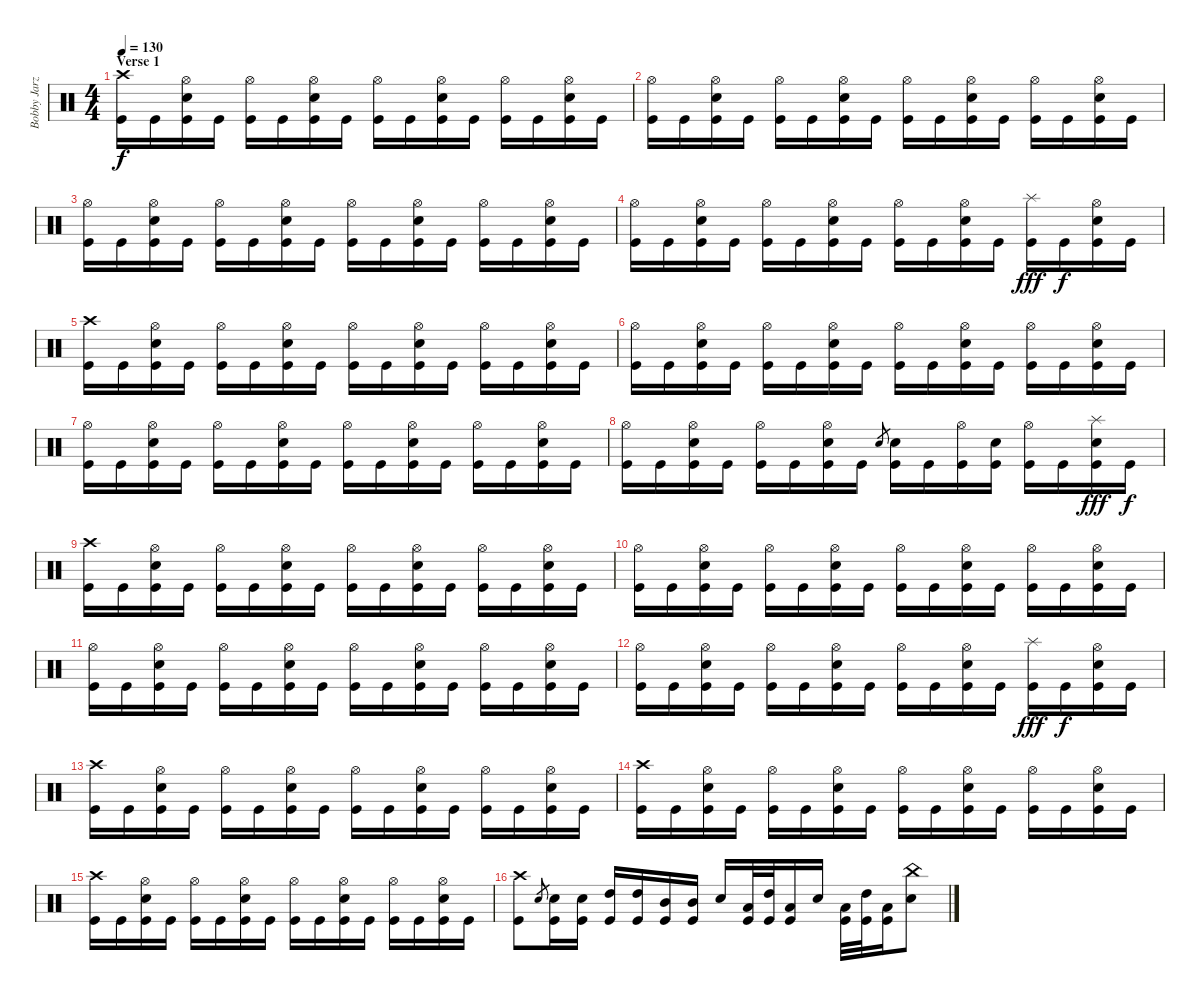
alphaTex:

\track ("Bobby Jarzombek" "Bobby Jarz") {instrument percussion}
\staff {score}
\articulation defaults
\ts (4 4)
\section ("" "Verse 1")
\tempo 130
\clef neutral
\ks c
("Crash high (hit)" "Kick (hit)").16{dy f} "Kick (hit)".16 ("Hi-Hat (open)" "Electric Snare (hit)" "Kick (hit)").16 "Kick (hit)".16 ("Hi-Hat (open)" "Kick (hit)").16 "Kick (hit)".16 ("Hi-Hat (open)" "Electric Snare (hit)" "Kick (hit)").16 "Kick (hit)".16 ("Hi-Hat (open)" "Kick (hit)").16 "Kick (hit)".16 ("Hi-Hat (open)" "Electric Snare (hit)" "Kick (hit)").16 "Kick (hit)".16 ("Hi-Hat (open)" "Kick (hit)").16 "Kick (hit)".16 ("Hi-Hat (open)" "Electric Snare (hit)" "Kick (hit)").16 "Kick (hit)".16 |
("Hi-Hat (open)" "Kick (hit)").16 "Kick (hit)".16 ("Hi-Hat (open)" "Electric Snare (hit)" "Kick (hit)").16 "Kick (hit)".16 ("Hi-Hat (open)" "Kick (hit)").16 "Kick (hit)".16 ("Hi-Hat (open)" "Electric Snare (hit)" "Kick (hit)").16 "Kick (hit)".16 ("Hi-Hat (open)" "Kick (hit)").16 "Kick (hit)".16 ("Hi-Hat (open)" "Electric Snare (hit)" "Kick (hit)").16 "Kick (hit)".16 ("Hi-Hat (open)" "Kick (hit)").16 "Kick (hit)".16 ("Hi-Hat (open)" "Electric Snare (hit)" "Kick (hit)").16 "Kick (hit)".16 |
("Hi-Hat (open)" "Kick (hit)").16 "Kick (hit)".16 ("Hi-Hat (open)" "Electric Snare (hit)" "Kick (hit)").16 "Kick (hit)".16 ("Hi-Hat (open)" "Kick (hit)").16 "Kick (hit)".16 ("Hi-Hat (open)" "Electric Snare (hit)" "Kick (hit)").16 "Kick (hit)".16 ("Hi-Hat (open)" "Kick (hit)").16 "Kick (hit)".16 ("Hi-Hat (open)" "Electric Snare (hit)" "Kick (hit)").16 "Kick (hit)".16 ("Hi-Hat (open)" "Kick (hit)").16 "Kick (hit)".16 ("Hi-Hat (open)" "Electric Snare (hit)" "Kick (hit)").16 "Kick (hit)".16 |
("Hi-Hat (open)" "Kick (hit)").16 "Kick (hit)".16 ("Hi-Hat (open)" "Electric Snare (hit)" "Kick (hit)").16 "Kick (hit)".16 ("Hi-Hat (open)" "Kick (hit)").16 "Kick (hit)".16 ("Hi-Hat (open)" "Electric Snare (hit)" "Kick (hit)").16 "Kick (hit)".16 ("Hi-Hat (open)" "Kick (hit)").16 "Kick (hit)".16 ("Hi-Hat (open)" "Electric Snare (hit)" "Kick (hit)").16 "Kick (hit)".16 ("Splash (hit)" "Kick (hit)").16{dy fff} "Kick (hit)".16{dy f} ("Hi-Hat (open)" "Electric Snare (hit)" "Kick (hit)").16 "Kick (hit)".16 |
("Crash high (hit)" "Kick (hit)").16 "Kick (hit)".16 ("Hi-Hat (open)" "Electric Snare (hit)" "Kick (hit)").16 "Kick (hit)".16 ("Hi-Hat (open)" "Kick (hit)").16 "Kick (hit)".16 ("Hi-Hat (open)" "Electric Snare (hit)" "Kick (hit)").16 "Kick (hit)".16 ("Hi-Hat (open)" "Kick (hit)").16 "Kick (hit)".16 ("Hi-Hat (open)" "Electric Snare (hit)" "Kick (hit)").16 "Kick (hit)".16 ("Hi-Hat (open)" "Kick (hit)").16 "Kick (hit)".16 ("Hi-Hat (open)" "Electric Snare (hit)" "Kick (hit)").16 "Kick (hit)".16 |
("Hi-Hat (open)" "Kick (hit)").16 "Kick (hit)".16 ("Hi-Hat (open)" "Electric Snare (hit)" "Kick (hit)").16 "Kick (hit)".16 ("Hi-Hat (open)" "Kick (hit)").16 "Kick (hit)".16 ("Hi-Hat (open)" "Electric Snare (hit)" "Kick (hit)").16 "Kick (hit)".16 ("Hi-Hat (open)" "Kick (hit)").16 "Kick (hit)".16 ("Hi-Hat (open)" "Electric Snare (hit)" "Kick (hit)").16 "Kick (hit)".16 ("Hi-Hat (open)" "Kick (hit)").16 "Kick (hit)".16 ("Hi-Hat (open)" "Electric Snare (hit)" "Kick (hit)").16 "Kick (hit)".16 |
("Hi-Hat (open)" "Kick (hit)").16 "Kick (hit)".16 ("Hi-Hat (open)" "Electric Snare (hit)" "Kick (hit)").16 "Kick (hit)".16 ("Hi-Hat (open)" "Kick (hit)").16 "Kick (hit)".16 ("Hi-Hat (open)" "Electric Snare (hit)" "Kick (hit)").16 "Kick (hit)".16 ("Hi-Hat (open)" "Kick (hit)").16 "Kick (hit)".16 ("Hi-Hat (open)" "Electric Snare (hit)" "Kick (hit)").16 "Kick (hit)".16 ("Hi-Hat (open)" "Kick (hit)").16 "Kick (hit)".16 ("Hi-Hat (open)" "Electric Snare (hit)" "Kick (hit)").16 "Kick (hit)".16 |
("Hi-Hat (open)" "Kick (hit)").16 "Kick (hit)".16 ("Hi-Hat (open)" "Electric Snare (hit)" "Kick (hit)").16 "Kick (hit)".16 ("Hi-Hat (open)" "Kick (hit)").16 "Kick (hit)".16 ("Hi-Hat (open)" "Electric Snare (hit)" "Kick (hit)").16 "Kick (hit)".16 "Electric Snare (hit)".8{gr} ("Electric Snare (hit)" "Kick (hit)").16 "Kick (hit)".16 ("Hi-Hat (open)" "Kick (hit)").16 ("Electric Snare (hit)" "Kick (hit)").16 ("Hi-Hat (open)" "Kick (hit)").16 "Kick (hit)".16 ("Splash (hit)" "Electric Snare (hit)" "Kick (hit)").16{dy fff} "Kick (hit)".16{dy f} |
("Crash high (hit)" "Kick (hit)").16 "Kick (hit)".16 ("Hi-Hat (open)" "Electric Snare (hit)" "Kick (hit)").16 "Kick (hit)".16 ("Hi-Hat (open)" "Kick (hit)").16 "Kick (hit)".16 ("Hi-Hat (open)" "Electric Snare (hit)" "Kick (hit)").16 "Kick (hit)".16 ("Hi-Hat (open)" "Kick (hit)").16 "Kick (hit)".16 ("Hi-Hat (open)" "Electric Snare (hit)" "Kick (hit)").16 "Kick (hit)".16 ("Hi-Hat (open)" "Kick (hit)").16 "Kick (hit)".16 ("Hi-Hat (open)" "Electric Snare (hit)" "Kick (hit)").16 "Kick (hit)".16 |
("Hi-Hat (open)" "Kick (hit)").16 "Kick (hit)".16 ("Hi-Hat (open)" "Electric Snare (hit)" "Kick (hit)").16 "Kick (hit)".16 ("Hi-Hat (open)" "Kick (hit)").16 "Kick (hit)".16 ("Hi-Hat (open)" "Electric Snare (hit)" "Kick (hit)").16 "Kick (hit)".16 ("Hi-Hat (open)" "Kick (hit)").16 "Kick (hit)".16 ("Hi-Hat (open)" "Electric Snare (hit)" "Kick (hit)").16 "Kick (hit)".16 ("Hi-Hat (open)" "Kick (hit)").16 "Kick (hit)".16 ("Hi-Hat (open)" "Electric Snare (hit)" "Kick (hit)").16 "Kick (hit)".16 |
("Hi-Hat (open)" "Kick (hit)").16 "Kick (hit)".16 ("Hi-Hat (open)" "Electric Snare (hit)" "Kick (hit)").16 "Kick (hit)".16 ("Hi-Hat (open)" "Kick (hit)").16 "Kick (hit)".16 ("Hi-Hat (open)" "Electric Snare (hit)" "Kick (hit)").16 "Kick (hit)".16 ("Hi-Hat (open)" "Kick (hit)").16 "Kick (hit)".16 ("Hi-Hat (open)" "Electric Snare (hit)" "Kick (hit)").16 "Kick (hit)".16 ("Hi-Hat (open)" "Kick (hit)").16 "Kick (hit)".16 ("Hi-Hat (open)" "Electric Snare (hit)" "Kick (hit)").16 "Kick (hit)".16 |
("Hi-Hat (open)" "Kick (hit)").16 "Kick (hit)".16 ("Hi-Hat (open)" "Electric Snare (hit)" "Kick (hit)").16 "Kick (hit)".16 ("Hi-Hat (open)" "Kick (hit)").16 "Kick (hit)".16 ("Hi-Hat (open)" "Electric Snare (hit)" "Kick (hit)").16 "Kick (hit)".16 ("Hi-Hat (open)" "Kick (hit)").16 "Kick (hit)".16 ("Hi-Hat (open)" "Electric Snare (hit)" "Kick (hit)").16 "Kick (hit)".16 ("Splash (hit)" "Kick (hit)").16{dy fff} "Kick (hit)".16{dy f} ("Hi-Hat (open)" "Electric Snare (hit)" "Kick (hit)").16 "Kick (hit)".16 |
("Crash high (hit)" "Kick (hit)").16 "Kick (hit)".16 ("Hi-Hat (open)" "Electric Snare (hit)" "Kick (hit)").16 "Kick (hit)".16 ("Hi-Hat (open)" "Kick (hit)").16 "Kick (hit)".16 ("Hi-Hat (open)" "Electric Snare (hit)" "Kick (hit)").16 "Kick (hit)".16 ("Hi-Hat (open)" "Kick (hit)").16 "Kick (hit)".16 ("Hi-Hat (open)" "Electric Snare (hit)" "Kick (hit)").16 "Kick (hit)".16 ("Hi-Hat (open)" "Kick (hit)").16 "Kick (hit)".16 ("Hi-Hat (open)" "Electric Snare (hit)" "Kick (hit)").16 "Kick (hit)".16 |
("Crash high (hit)" "Kick (hit)").16 "Kick (hit)".16 ("Hi-Hat (open)" "Electric Snare (hit)" "Kick (hit)").16 "Kick (hit)".16 ("Hi-Hat (open)" "Kick (hit)").16 "Kick (hit)".16 ("Hi-Hat (open)" "Electric Snare (hit)" "Kick (hit)").16 "Kick (hit)".16 ("Hi-Hat (open)" "Kick (hit)").16 "Kick (hit)".16 ("Hi-Hat (open)" "Electric Snare (hit)" "Kick (hit)").16 "Kick (hit)".16 ("Hi-Hat (open)" "Kick (hit)").16 "Kick (hit)".16 ("Hi-Hat (open)" "Electric Snare (hit)" "Kick (hit)").16 "Kick (hit)".16 |
("Crash high (hit)" "Kick (hit)").16 "Kick (hit)".16 ("Hi-Hat (open)" "Electric Snare (hit)" "Kick (hit)").16 "Kick (hit)".16 ("Hi-Hat (open)" "Kick (hit)").16 "Kick (hit)".16 ("Hi-Hat (open)" "Electric Snare (hit)" "Kick (hit)").16 "Kick (hit)".16 ("Hi-Hat (open)" "Kick (hit)").16 "Kick (hit)".16 ("Hi-Hat (open)" "Electric Snare (hit)" "Kick (hit)").16 "Kick (hit)".16 ("Hi-Hat (open)" "Kick (hit)").16 "Kick (hit)".16 ("Hi-Hat (open)" "Electric Snare (hit)" "Kick (hit)").16 "Kick (hit)".16 |
("Crash high (hit)" "Kick (hit)").8 "Electric Snare (hit)".8{gr} ("Electric Snare (hit)" "Kick (hit)").16 ("Electric Snare (hit)" "Kick (hit)").16 ("High Tom (hit)" "Kick (hit)").16 ("High Tom (hit)" "Kick (hit)").16 ("Mid Tom (hit)" "Kick (hit)").16 ("Mid Tom (hit)" "Kick (hit)").16 "Electric Snare (hit)".16 ("Low Tom (hit)" "Kick (hit)").32 ("High Tom (hit)" "Kick (hit)").32 ("Low Tom (hit)" "Kick (hit)").16 "Electric Snare (hit)".16 ("Low Tom (hit)" "Kick (hit)").32 ("High Tom (hit)" "Kick (hit)").32 ("Low Tom (hit)" "Kick (hit)").16 ("China (hit)" "Electric Snare (hit)").8
